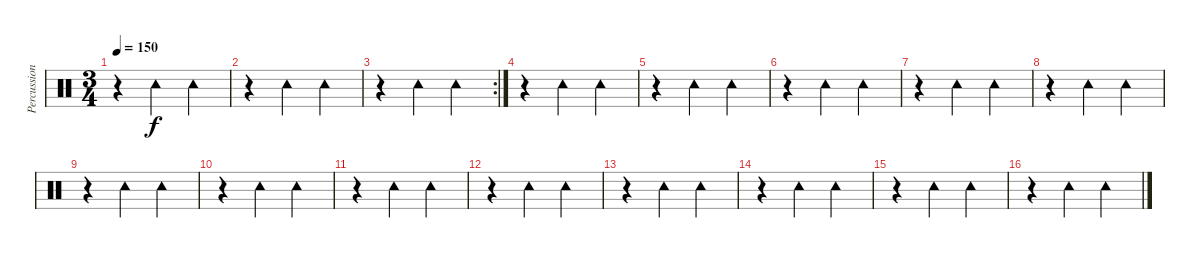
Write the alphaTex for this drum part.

\track ("Percussions" "Percussion") {instrument percussion bank 1}
\staff {score}
\articulation defaults
\ts (3 4)
\tempo 150
\clef neutral
\ks c
r.4{dy f} "Tambourine (hit)".4 "Tambourine (hit)".4 |
r.4 "Tambourine (hit)".4 "Tambourine (hit)".4 |
\rc 2
r.4 "Tambourine (hit)".4 "Tambourine (hit)".4 |
r.4 "Tambourine (hit)".4 "Tambourine (hit)".4 |
r.4 "Tambourine (hit)".4 "Tambourine (hit)".4 |
r.4 "Tambourine (hit)".4 "Tambourine (hit)".4 |
r.4 "Tambourine (hit)".4 "Tambourine (hit)".4 |
r.4 "Tambourine (hit)".4 "Tambourine (hit)".4 |
r.4 "Tambourine (hit)".4 "Tambourine (hit)".4 |
r.4 "Tambourine (hit)".4 "Tambourine (hit)".4 |
r.4 "Tambourine (hit)".4 "Tambourine (hit)".4 |
r.4 "Tambourine (hit)".4 "Tambourine (hit)".4 |
r.4 "Tambourine (hit)".4 "Tambourine (hit)".4 |
r.4 "Tambourine (hit)".4 "Tambourine (hit)".4 |
r.4 "Tambourine (hit)".4 "Tambourine (hit)".4 |
r.4 "Tambourine (hit)".4 "Tambourine (hit)".4
